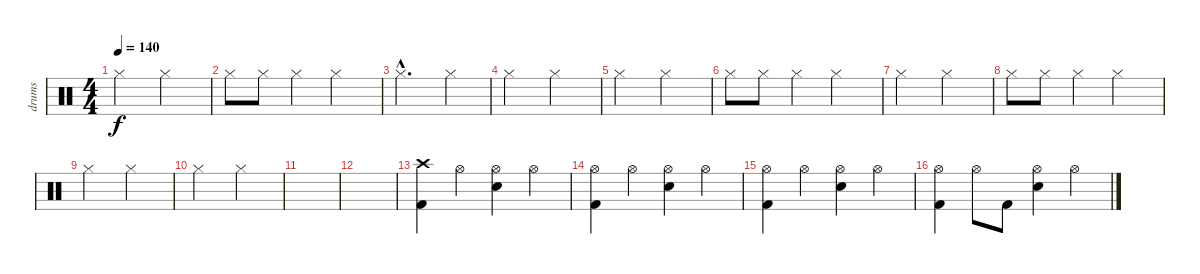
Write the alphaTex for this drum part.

\track ("drums" "drums") {instrument percussion}
\staff {score}
\articulation defaults
\ts (4 4)
\tempo 140
\clef neutral
\ks c "Hi-Hat (closed)".2{dy f} "Hi-Hat (closed)".2
|
"Hi-Hat (closed)".8 "Hi-Hat (closed)".8 "Hi-Hat (closed)".4 "Hi-Hat (closed)".2 |
"Hi-Hat (closed)"{hac}.2{d} "Hi-Hat (closed)".4 |
"Hi-Hat (closed)".2 "Hi-Hat (closed)".2 |
"Hi-Hat (closed)".2 "Hi-Hat (closed)".2 |
"Hi-Hat (closed)".8 "Hi-Hat (closed)".8 "Hi-Hat (closed)".4 "Hi-Hat (closed)".2 |
"Hi-Hat (closed)".2 "Hi-Hat (closed)".2 |
"Hi-Hat (closed)".8 "Hi-Hat (closed)".8 "Hi-Hat (closed)".4 "Hi-Hat (closed)".2 |
"Hi-Hat (closed)".2 "Hi-Hat (closed)".2 |
"Hi-Hat (closed)".2 "Hi-Hat (closed)".2 |
|
|
("Crash high (hit)" "Kick (hit) 2").4{volume 14} "Hi-Hat (open)".4 ("Snare (hit) 2" "Hi-Hat (open)").4 "Hi-Hat (open)".4 |
("Hi-Hat (open)" "Kick (hit) 2").4 "Hi-Hat (open)".4 ("Snare (hit) 2" "Hi-Hat (open)").4 "Hi-Hat (open)".4 |
("Hi-Hat (open)" "Kick (hit) 2").4 "Hi-Hat (open)".4 ("Snare (hit) 2" "Hi-Hat (open)").4 "Hi-Hat (open)".4 |
("Hi-Hat (open)" "Kick (hit) 2").4 "Hi-Hat (open)".8 "Kick (hit) 2".8 ("Snare (hit) 2" "Hi-Hat (open)").4 "Hi-Hat (open)".4
